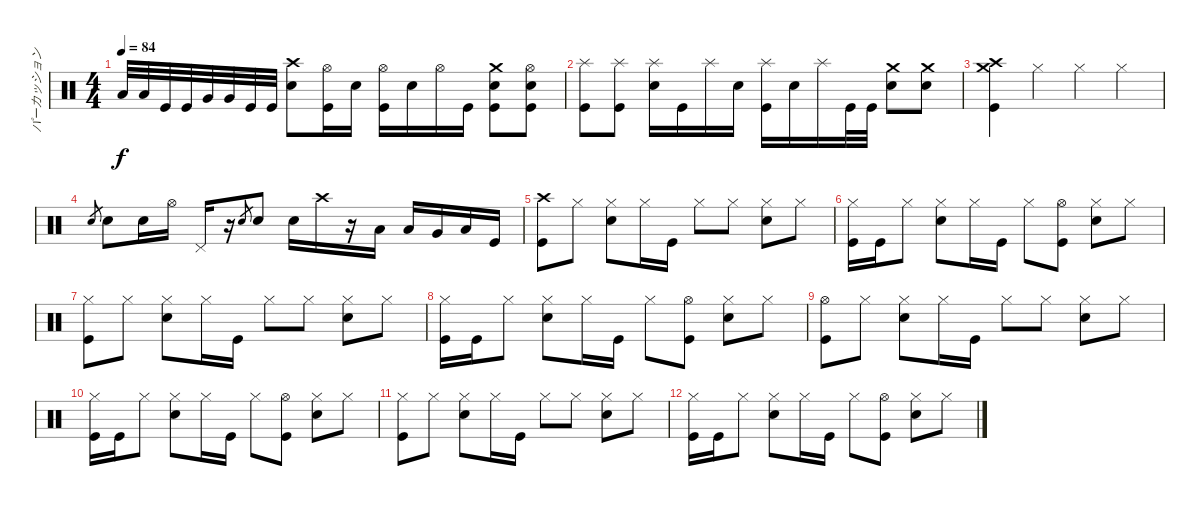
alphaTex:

\track ("パーカッション" "パーカッション") {instrument percussion}
\staff {score}
\articulation defaults
\ts (4 4)
\tempo 84
\clef neutral
\ks c "Low Tom (hit)".32{dy f} "Low Tom (hit)".32 "Kick (hit)".32 "Kick (hit)".32 "Very Low Tom (hit)".32 "Very Low Tom (hit)".32 "Kick (hit)".32 "Kick (hit)".32
("Snare (hit) 2" "Crash high (hit)").8 ("Hi-Hat (open)" "Kick (hit)").16 "Snare (hit) 2".16 ("Kick (hit)" "Hi-Hat (open)").16 "Snare (hit) 2".16 "Hi-Hat (open)".16 "Kick (hit)".16 ("Snare (hit) 2" "Crash medium (hit)" "Kick (hit)").8 ("Hi-Hat (open)" "Snare (hit) 2" "Kick (hit)").8 |
("Splash (hit)" "Kick (hit)").8 ("Splash (hit)" "Kick (hit)").8 ("Splash (hit)" "Snare (hit) 2").16 "Kick (hit)".16 "Splash (hit)".16 "Snare (hit) 2".16 ("Splash (hit)" "Kick (hit)").16 "Snare (hit) 2".16 "Splash (hit)".16 "Kick (hit)".32 "Kick (hit)".32 ("Snare (hit) 2" "Crash medium (hit)").8 ("Snare (hit) 2" "Crash medium (hit)").8 |
("Kick (hit)" "Crash high (hit)" "Crash medium (hit)").4 "Hi-Hat (closed)".4 "Hi-Hat (closed)".4 "Hi-Hat (closed)".4 |
"Snare (hit) 2".8{gr} "Snare (hit) 2".8 "Snare (hit) 2".16 "Hi-Hat (open)".16 "Pedal Hi-Hat (hit)".16 r.16 "Snare (hit) 2".8{gr} "Snare (hit) 2".8 "Snare (hit) 2".16 "Crash high (hit)".16 r.16 "Low Tom (hit)".16 "Low Tom (hit)".16 "Very Low Tom (hit)".16 "Low Floor Tom (hit)".16 "Kick (hit)".16 |
("Crash high (hit)" "Kick (hit)").8 "Hi-Hat (closed)".8 ("Snare (hit) 2" "Hi-Hat (closed)").8 "Hi-Hat (closed)".16 "Kick (hit)".16 "Hi-Hat (closed)".8 "Hi-Hat (closed)".8 ("Hi-Hat (closed)" "Snare (hit) 2").8 "Hi-Hat (closed)".8 |
("Hi-Hat (closed)" "Kick (hit)").16 "Kick (hit)".16 "Hi-Hat (closed)".8 ("Hi-Hat (closed)" "Snare (hit) 2").8 "Hi-Hat (closed)".16 "Kick (hit)".16 "Hi-Hat (closed)".8 ("Hi-Hat (open)" "Kick (hit)").8 ("Snare (hit) 2" "Hi-Hat (closed)").8 "Hi-Hat (closed)".8 |
("Hi-Hat (closed)" "Kick (hit)").8 "Hi-Hat (closed)".8 ("Snare (hit) 2" "Hi-Hat (closed)").8 "Hi-Hat (closed)".16 "Kick (hit)".16 "Hi-Hat (closed)".8 "Hi-Hat (closed)".8 ("Hi-Hat (closed)" "Snare (hit) 2").8 "Hi-Hat (closed)".8 |
("Hi-Hat (closed)" "Kick (hit)").16 "Kick (hit)".16 "Hi-Hat (closed)".8 ("Hi-Hat (closed)" "Snare (hit) 2").8 "Hi-Hat (closed)".16 "Kick (hit)".16 "Hi-Hat (closed)".8 ("Kick (hit)" "Hi-Hat (open)").8 ("Snare (hit) 2" "Hi-Hat (closed)").8 "Hi-Hat (closed)".8 |
("Hi-Hat (open)" "Kick (hit)").8 "Hi-Hat (closed)".8 ("Snare (hit) 2" "Hi-Hat (closed)").8 "Hi-Hat (closed)".16 "Kick (hit)".16 "Hi-Hat (closed)".8 "Hi-Hat (closed)".8 ("Hi-Hat (closed)" "Snare (hit) 2").8 "Hi-Hat (closed)".8 |
("Hi-Hat (closed)" "Kick (hit)").16 "Kick (hit)".16 "Hi-Hat (closed)".8 ("Hi-Hat (closed)" "Snare (hit) 2").8 "Hi-Hat (closed)".16 "Kick (hit)".16 "Hi-Hat (closed)".8 ("Kick (hit)" "Hi-Hat (open)").8 ("Snare (hit) 2" "Hi-Hat (closed)").8 "Hi-Hat (closed)".8 |
("Hi-Hat (closed)" "Kick (hit)").8 "Hi-Hat (closed)".8 ("Snare (hit) 2" "Hi-Hat (closed)").8 "Hi-Hat (closed)".16 "Kick (hit)".16 "Hi-Hat (closed)".8 "Hi-Hat (closed)".8 ("Hi-Hat (closed)" "Snare (hit) 2").8 "Hi-Hat (closed)".8 |
("Hi-Hat (closed)" "Kick (hit)").16 "Kick (hit)".16 "Hi-Hat (closed)".8 ("Hi-Hat (closed)" "Snare (hit) 2").8 "Hi-Hat (closed)".16 "Kick (hit)".16 "Hi-Hat (closed)".8 ("Kick (hit)" "Hi-Hat (open)").8 ("Snare (hit) 2" "Hi-Hat (closed)").8 "Hi-Hat (closed)".8
